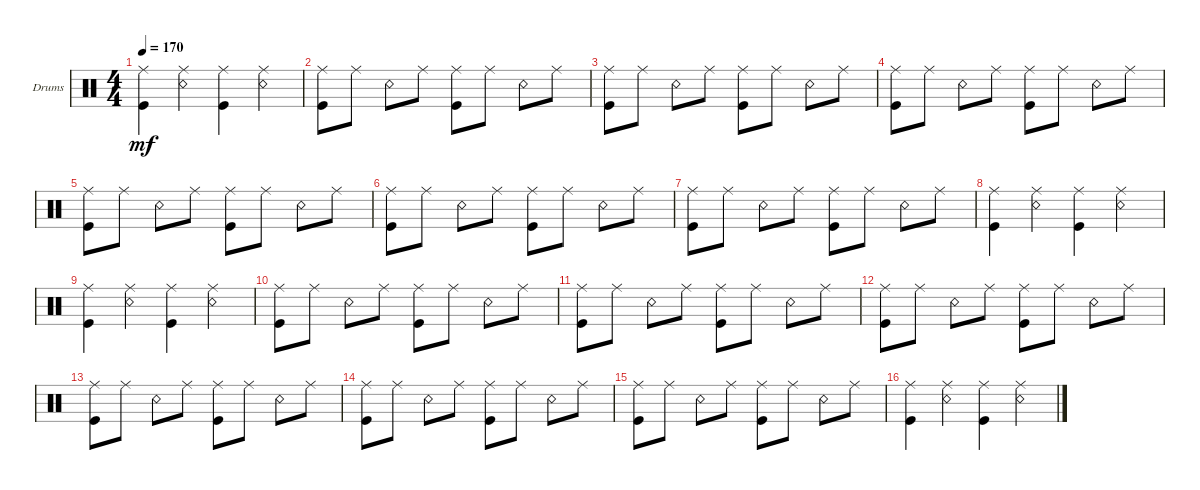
\defaultSystemsLayout 4
\bracketExtendMode groupsimilarinstruments
\firstSystemTrackNameOrientation horizontal
\otherSystemsTrackNameOrientation horizontal
\track ("Drumkit" "Drums") {instrument percussion}
\staff {score}
\articulation defaults
\ts (4 4)
\tempo 170
\clef neutral
\ks c
("Kick (hit)" "Ride (middle)").4{dy mf} ("Snare (rim shot)" "Ride (middle)").4 ("Kick (hit)" "Ride (middle)").4 ("Snare (rim shot)" "Ride (middle)").4 |
("Kick (hit)" "Ride (middle)").8 "Ride (middle)".8 "Snare (rim shot)".8 "Ride (middle)".8 ("Kick (hit)" "Ride (middle)").8 "Ride (middle)".8 "Snare (rim shot)".8 "Ride (middle)".8 |
("Kick (hit)" "Ride (middle)").8 "Ride (middle)".8 "Snare (rim shot)".8 "Ride (middle)".8 ("Kick (hit)" "Ride (middle)").8 "Ride (middle)".8 "Snare (rim shot)".8 "Ride (middle)".8 |
("Kick (hit)" "Ride (middle)").8 "Ride (middle)".8 "Snare (rim shot)".8 "Ride (middle)".8 ("Kick (hit)" "Ride (middle)").8 "Ride (middle)".8 "Snare (rim shot)".8 "Ride (middle)".8 |
("Kick (hit)" "Ride (middle)").8 "Ride (middle)".8 "Snare (rim shot)".8 "Ride (middle)".8 ("Kick (hit)" "Ride (middle)").8 "Ride (middle)".8 "Snare (rim shot)".8 "Ride (middle)".8 |
("Kick (hit)" "Ride (middle)").8 "Ride (middle)".8 "Snare (rim shot)".8 "Ride (middle)".8 ("Kick (hit)" "Ride (middle)").8 "Ride (middle)".8 "Snare (rim shot)".8 "Ride (middle)".8 |
("Kick (hit)" "Ride (middle)").8 "Ride (middle)".8 "Snare (rim shot)".8 "Ride (middle)".8 ("Kick (hit)" "Ride (middle)").8 "Ride (middle)".8 "Snare (rim shot)".8 "Ride (middle)".8 |
("Kick (hit)" "Ride (middle)").4 ("Snare (rim shot)" "Ride (middle)").4 ("Kick (hit)" "Ride (middle)").4 ("Snare (rim shot)" "Ride (middle)").4 |
("Kick (hit)" "Ride (middle)").4 ("Snare (rim shot)" "Ride (middle)").4 ("Kick (hit)" "Ride (middle)").4 ("Snare (rim shot)" "Ride (middle)").4 |
("Kick (hit)" "Ride (middle)").8 "Ride (middle)".8 "Snare (rim shot)".8 "Ride (middle)".8 ("Kick (hit)" "Ride (middle)").8 "Ride (middle)".8 "Snare (rim shot)".8 "Ride (middle)".8 |
("Kick (hit)" "Ride (middle)").8 "Ride (middle)".8 "Snare (rim shot)".8 "Ride (middle)".8 ("Kick (hit)" "Ride (middle)").8 "Ride (middle)".8 "Snare (rim shot)".8 "Ride (middle)".8 |
("Kick (hit)" "Ride (middle)").8 "Ride (middle)".8 "Snare (rim shot)".8 "Ride (middle)".8 ("Kick (hit)" "Ride (middle)").8 "Ride (middle)".8 "Snare (rim shot)".8 "Ride (middle)".8 |
("Kick (hit)" "Ride (middle)").8 "Ride (middle)".8 "Snare (rim shot)".8 "Ride (middle)".8 ("Kick (hit)" "Ride (middle)").8 "Ride (middle)".8 "Snare (rim shot)".8 "Ride (middle)".8 |
("Kick (hit)" "Ride (middle)").8 "Ride (middle)".8 "Snare (rim shot)".8 "Ride (middle)".8 ("Kick (hit)" "Ride (middle)").8 "Ride (middle)".8 "Snare (rim shot)".8 "Ride (middle)".8 |
("Kick (hit)" "Ride (middle)").8 "Ride (middle)".8 "Snare (rim shot)".8 "Ride (middle)".8 ("Kick (hit)" "Ride (middle)").8 "Ride (middle)".8 "Snare (rim shot)".8 "Ride (middle)".8 |
("Kick (hit)" "Ride (middle)").4 ("Snare (rim shot)" "Ride (middle)").4 ("Kick (hit)" "Ride (middle)").4 ("Snare (rim shot)" "Ride (middle)").4
